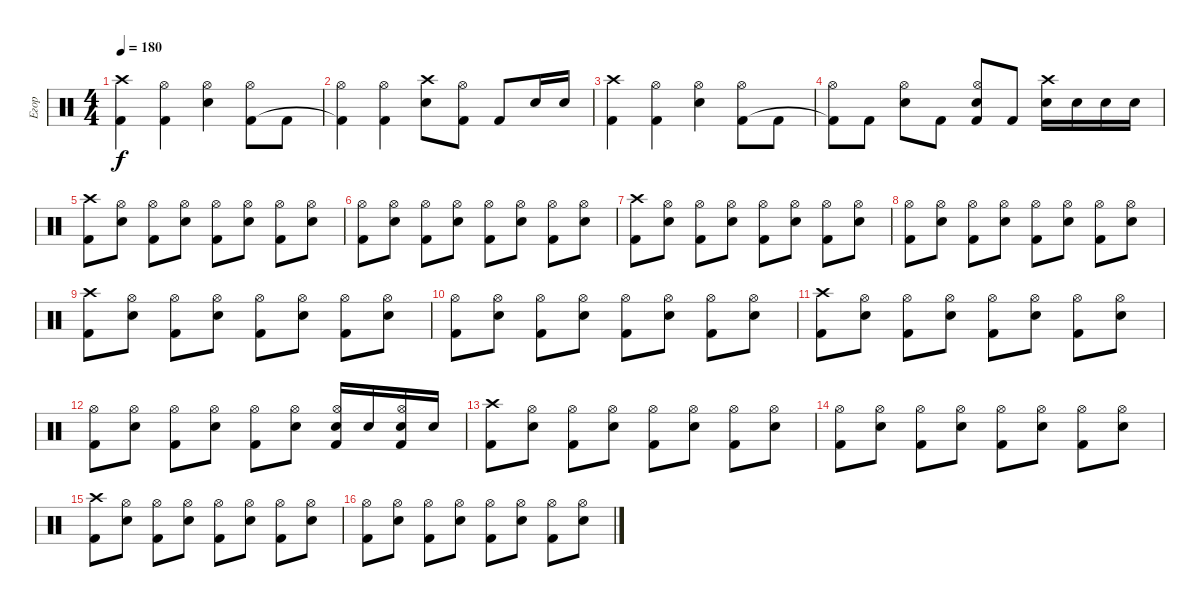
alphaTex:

\track ("Егор" "Егор") {instrument percussion}
\staff {score}
\articulation defaults
\ts (4 4)
\tempo 180
\clef neutral
\ks c
("Crash high (hit)" "Kick (hit) 2").4{dy f} ("Hi-Hat (open)" "Kick (hit) 2").4 ("Hi-Hat (open)" "Electric Snare (hit)").4 ("Hi-Hat (open)" "Kick (hit) 2").8 "Kick (hit) 2".8 |
("Hi-Hat (open)" "Kick (hit) 2"{t}).4 ("Hi-Hat (open)" "Kick (hit) 2").4 ("Crash high (hit)" "Electric Snare (hit)").8 ("Hi-Hat (open)" "Kick (hit) 2").8 "Kick (hit) 2".8 "Electric Snare (hit)".16 "Electric Snare (hit)".16 |
("Crash high (hit)" "Kick (hit) 2").4 ("Hi-Hat (open)" "Kick (hit) 2").4 ("Hi-Hat (open)" "Electric Snare (hit)").4 ("Hi-Hat (open)" "Kick (hit) 2").8 "Kick (hit) 2".8 |
("Hi-Hat (open)" "Kick (hit) 2"{t}).8 "Kick (hit) 2".8 ("Hi-Hat (open)" "Electric Snare (hit)").8 "Kick (hit) 2".8 ("Hi-Hat (open)" "Electric Snare (hit)" "Kick (hit) 2").8 "Kick (hit) 2".8 ("Crash high (hit)" "Electric Snare (hit)").16 "Electric Snare (hit)".16 "Electric Snare (hit)".16 "Electric Snare (hit)".16 |
("Crash high (hit)" "Kick (hit) 2").8 ("Hi-Hat (open)" "Electric Snare (hit)").8 ("Hi-Hat (open)" "Kick (hit) 2").8 ("Hi-Hat (open)" "Electric Snare (hit)").8 ("Hi-Hat (open)" "Kick (hit) 2").8 ("Hi-Hat (open)" "Electric Snare (hit)").8 ("Hi-Hat (open)" "Kick (hit) 2").8 ("Hi-Hat (open)" "Electric Snare (hit)").8 |
("Hi-Hat (open)" "Kick (hit) 2").8 ("Hi-Hat (open)" "Electric Snare (hit)").8 ("Hi-Hat (open)" "Kick (hit) 2").8 ("Hi-Hat (open)" "Electric Snare (hit)").8 ("Hi-Hat (open)" "Kick (hit) 2").8 ("Hi-Hat (open)" "Electric Snare (hit)").8 ("Hi-Hat (open)" "Kick (hit) 2").8 ("Hi-Hat (open)" "Electric Snare (hit)").8 |
("Crash high (hit)" "Kick (hit) 2").8 ("Hi-Hat (open)" "Electric Snare (hit)").8 ("Hi-Hat (open)" "Kick (hit) 2").8 ("Hi-Hat (open)" "Electric Snare (hit)").8 ("Hi-Hat (open)" "Kick (hit) 2").8 ("Hi-Hat (open)" "Electric Snare (hit)").8 ("Hi-Hat (open)" "Kick (hit) 2").8 ("Hi-Hat (open)" "Electric Snare (hit)").8 |
("Hi-Hat (open)" "Kick (hit) 2").8 ("Hi-Hat (open)" "Electric Snare (hit)").8 ("Hi-Hat (open)" "Kick (hit) 2").8 ("Hi-Hat (open)" "Electric Snare (hit)").8 ("Hi-Hat (open)" "Kick (hit) 2").8 ("Hi-Hat (open)" "Electric Snare (hit)").8 ("Hi-Hat (open)" "Kick (hit) 2").8 ("Hi-Hat (open)" "Electric Snare (hit)").8 |
("Crash high (hit)" "Kick (hit) 2").8 ("Hi-Hat (open)" "Electric Snare (hit)").8 ("Hi-Hat (open)" "Kick (hit) 2").8 ("Hi-Hat (open)" "Electric Snare (hit)").8 ("Hi-Hat (open)" "Kick (hit) 2").8 ("Hi-Hat (open)" "Electric Snare (hit)").8 ("Hi-Hat (open)" "Kick (hit) 2").8 ("Hi-Hat (open)" "Electric Snare (hit)").8 |
("Hi-Hat (open)" "Kick (hit) 2").8 ("Hi-Hat (open)" "Electric Snare (hit)").8 ("Hi-Hat (open)" "Kick (hit) 2").8 ("Hi-Hat (open)" "Electric Snare (hit)").8 ("Hi-Hat (open)" "Kick (hit) 2").8 ("Hi-Hat (open)" "Electric Snare (hit)").8 ("Hi-Hat (open)" "Kick (hit) 2").8 ("Hi-Hat (open)" "Electric Snare (hit)").8 |
("Crash high (hit)" "Kick (hit) 2").8 ("Hi-Hat (open)" "Electric Snare (hit)").8 ("Hi-Hat (open)" "Kick (hit) 2").8 ("Hi-Hat (open)" "Electric Snare (hit)").8 ("Hi-Hat (open)" "Kick (hit) 2").8 ("Hi-Hat (open)" "Electric Snare (hit)").8 ("Hi-Hat (open)" "Kick (hit) 2").8 ("Hi-Hat (open)" "Electric Snare (hit)").8 |
("Hi-Hat (open)" "Kick (hit) 2").8 ("Hi-Hat (open)" "Electric Snare (hit)").8 ("Hi-Hat (open)" "Kick (hit) 2").8 ("Hi-Hat (open)" "Electric Snare (hit)").8 ("Hi-Hat (open)" "Kick (hit) 2").8 ("Hi-Hat (open)" "Electric Snare (hit)").8 ("Hi-Hat (open)" "Electric Snare (hit)" "Kick (hit) 2").16 "Electric Snare (hit)".16 ("Hi-Hat (open)" "Electric Snare (hit)" "Kick (hit) 2").16 "Electric Snare (hit)".16 |
("Crash high (hit)" "Kick (hit) 2").8 ("Hi-Hat (open)" "Electric Snare (hit)").8 ("Hi-Hat (open)" "Kick (hit) 2").8 ("Hi-Hat (open)" "Electric Snare (hit)").8 ("Hi-Hat (open)" "Kick (hit) 2").8 ("Hi-Hat (open)" "Electric Snare (hit)").8 ("Hi-Hat (open)" "Kick (hit) 2").8 ("Hi-Hat (open)" "Electric Snare (hit)").8 |
("Hi-Hat (open)" "Kick (hit) 2").8 ("Hi-Hat (open)" "Electric Snare (hit)").8 ("Hi-Hat (open)" "Kick (hit) 2").8 ("Hi-Hat (open)" "Electric Snare (hit)").8 ("Hi-Hat (open)" "Kick (hit) 2").8 ("Hi-Hat (open)" "Electric Snare (hit)").8 ("Hi-Hat (open)" "Kick (hit) 2").8 ("Hi-Hat (open)" "Electric Snare (hit)").8 |
("Crash high (hit)" "Kick (hit) 2").8 ("Hi-Hat (open)" "Electric Snare (hit)").8 ("Hi-Hat (open)" "Kick (hit) 2").8 ("Hi-Hat (open)" "Electric Snare (hit)").8 ("Hi-Hat (open)" "Kick (hit) 2").8 ("Hi-Hat (open)" "Electric Snare (hit)").8 ("Hi-Hat (open)" "Kick (hit) 2").8 ("Hi-Hat (open)" "Electric Snare (hit)").8 |
("Hi-Hat (open)" "Kick (hit) 2").8 ("Hi-Hat (open)" "Electric Snare (hit)").8 ("Hi-Hat (open)" "Kick (hit) 2").8 ("Hi-Hat (open)" "Electric Snare (hit)").8 ("Hi-Hat (open)" "Kick (hit) 2").8 ("Hi-Hat (open)" "Electric Snare (hit)").8 ("Hi-Hat (open)" "Kick (hit) 2").8 ("Hi-Hat (open)" "Electric Snare (hit)").8
